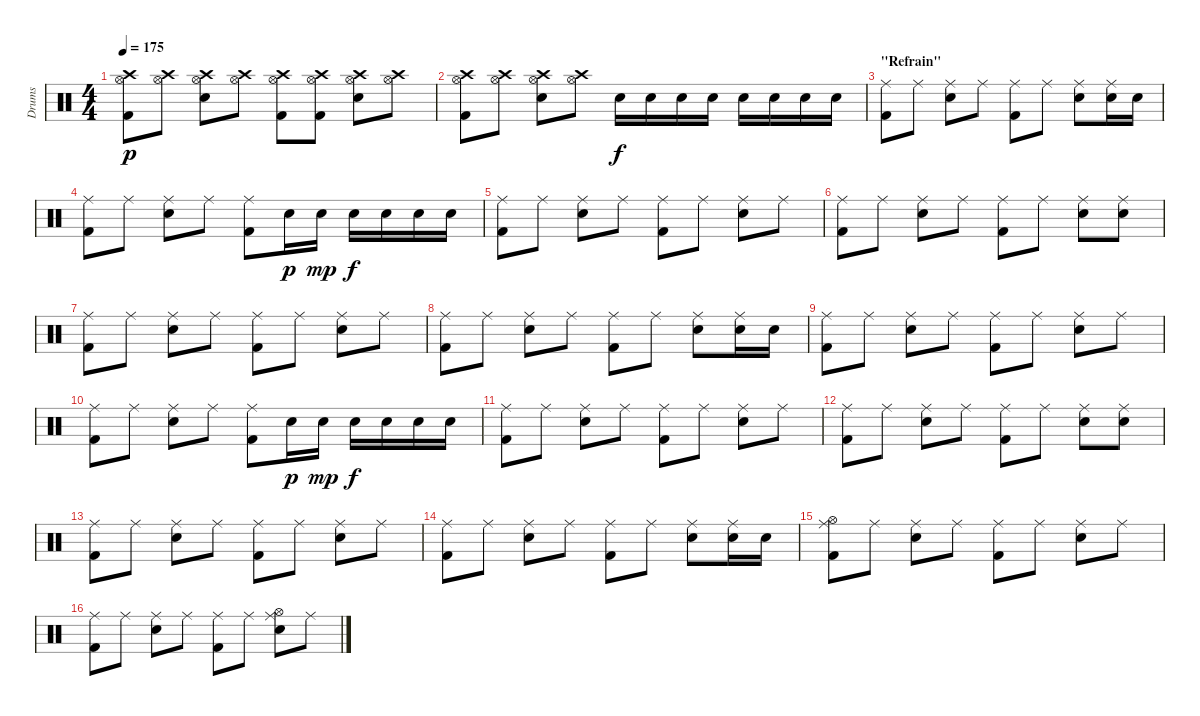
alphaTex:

\track ("Drums" "Drums") {instrument percussion}
\staff {score}
\articulation defaults
\ts (4 4)
\tempo 175
\clef neutral
\ks c
("Hi-Hat (open)" "Crash high (hit)" "Kick (hit) 2").8{dy p} ("Hi-Hat (open)" "Crash high (hit)").8 ("Hi-Hat (open)" "Crash high (hit)" "Electric Snare (hit)").8 ("Hi-Hat (open)" "Crash high (hit)").8 ("Hi-Hat (open)" "Crash high (hit)" "Kick (hit) 2").8 ("Hi-Hat (open)" "Crash high (hit)" "Kick (hit) 2").8 ("Hi-Hat (open)" "Crash high (hit)" "Electric Snare (hit)").8 ("Hi-Hat (open)" "Crash high (hit)").8 |
("Hi-Hat (open)" "Crash high (hit)" "Kick (hit) 2").8 ("Hi-Hat (open)" "Crash high (hit)").8 ("Hi-Hat (open)" "Crash high (hit)" "Electric Snare (hit)").8 ("Hi-Hat (open)" "Crash high (hit)").8 "Electric Snare (hit)".16{dy f} "Electric Snare (hit)".16 "Electric Snare (hit)".16 "Electric Snare (hit)".16 "Electric Snare (hit)".16 "Electric Snare (hit)".16 "Electric Snare (hit)".16 "Electric Snare (hit)".16 |
\section ("" "\"Refrain\"")
("Ride (middle)" "Kick (hit) 2").8 "Ride (middle)".8 ("Ride (middle)" "Electric Snare (hit)").8 "Ride (middle)".8 ("Ride (middle)" "Kick (hit) 2").8 "Ride (middle)".8 ("Ride (middle)" "Electric Snare (hit)").8 ("Ride (middle)" "Electric Snare (hit)").16 "Electric Snare (hit)".16 |
("Ride (middle)" "Kick (hit) 2").8 "Ride (middle)".8 ("Ride (middle)" "Electric Snare (hit)").8 "Ride (middle)".8 ("Ride (middle)" "Kick (hit) 2").8 "Electric Snare (hit)".16{dy p} "Electric Snare (hit)".16{dy mp} "Electric Snare (hit)".16{dy f} "Electric Snare (hit)".16 "Electric Snare (hit)".16 "Electric Snare (hit)".16 |
("Ride (middle)" "Kick (hit) 2").8 "Ride (middle)".8 ("Ride (middle)" "Electric Snare (hit)").8 "Ride (middle)".8 ("Ride (middle)" "Kick (hit) 2").8 "Ride (middle)".8 ("Ride (middle)" "Electric Snare (hit)").8 "Ride (middle)".8 |
("Ride (middle)" "Kick (hit) 2").8 "Ride (middle)".8 ("Ride (middle)" "Electric Snare (hit)").8 "Ride (middle)".8 ("Ride (middle)" "Kick (hit) 2").8 "Ride (middle)".8 ("Ride (middle)" "Electric Snare (hit)").8 ("Ride (middle)" "Electric Snare (hit)").8 |
("Ride (middle)" "Kick (hit) 2").8 "Ride (middle)".8 ("Ride (middle)" "Electric Snare (hit)").8 "Ride (middle)".8 ("Ride (middle)" "Kick (hit) 2").8 "Ride (middle)".8 ("Ride (middle)" "Electric Snare (hit)").8 "Ride (middle)".8 |
("Ride (middle)" "Kick (hit) 2").8 "Ride (middle)".8 ("Ride (middle)" "Electric Snare (hit)").8 "Ride (middle)".8 ("Ride (middle)" "Kick (hit) 2").8 "Ride (middle)".8 ("Ride (middle)" "Electric Snare (hit)").8 ("Ride (middle)" "Electric Snare (hit)").16 "Electric Snare (hit)".16 |
("Ride (middle)" "Kick (hit) 2").8 "Ride (middle)".8 ("Ride (middle)" "Electric Snare (hit)").8 "Ride (middle)".8 ("Ride (middle)" "Kick (hit) 2").8 "Ride (middle)".8 ("Ride (middle)" "Electric Snare (hit)").8 "Ride (middle)".8 |
("Ride (middle)" "Kick (hit) 2").8 "Ride (middle)".8 ("Ride (middle)" "Electric Snare (hit)").8 "Ride (middle)".8 ("Ride (middle)" "Kick (hit) 2").8 "Electric Snare (hit)".16{dy p} "Electric Snare (hit)".16{dy mp} "Electric Snare (hit)".16{dy f} "Electric Snare (hit)".16 "Electric Snare (hit)".16 "Electric Snare (hit)".16 |
("Ride (middle)" "Kick (hit) 2").8 "Ride (middle)".8 ("Ride (middle)" "Electric Snare (hit)").8 "Ride (middle)".8 ("Ride (middle)" "Kick (hit) 2").8 "Ride (middle)".8 ("Ride (middle)" "Electric Snare (hit)").8 "Ride (middle)".8 |
("Ride (middle)" "Kick (hit) 2").8 "Ride (middle)".8 ("Ride (middle)" "Electric Snare (hit)").8 "Ride (middle)".8 ("Ride (middle)" "Kick (hit) 2").8 "Ride (middle)".8 ("Ride (middle)" "Electric Snare (hit)").8 ("Ride (middle)" "Electric Snare (hit)").8 |
("Ride (middle)" "Kick (hit) 2").8 "Ride (middle)".8 ("Ride (middle)" "Electric Snare (hit)").8 "Ride (middle)".8 ("Ride (middle)" "Kick (hit) 2").8 "Ride (middle)".8 ("Ride (middle)" "Electric Snare (hit)").8 "Ride (middle)".8 |
("Ride (middle)" "Kick (hit) 2").8 "Ride (middle)".8 ("Ride (middle)" "Electric Snare (hit)").8 "Ride (middle)".8 ("Ride (middle)" "Kick (hit) 2").8 "Ride (middle)".8 ("Ride (middle)" "Electric Snare (hit)").8 ("Ride (middle)" "Electric Snare (hit)").16 "Electric Snare (hit)".16 |
("Ride (middle)" "Hi-Hat (open)" "Kick (hit) 2").8 "Ride (middle)".8 ("Ride (middle)" "Electric Snare (hit)").8 "Ride (middle)".8 ("Ride (middle)" "Kick (hit) 2").8 "Ride (middle)".8 ("Ride (middle)" "Electric Snare (hit)").8 "Ride (middle)".8 |
("Ride (middle)" "Kick (hit) 2").8 "Ride (middle)".8 ("Ride (middle)" "Electric Snare (hit)").8 "Ride (middle)".8 ("Ride (middle)" "Kick (hit) 2").8 "Ride (middle)".8 ("Ride (middle)" "Hi-Hat (open)" "Electric Snare (hit)").8 "Ride (middle)".8
